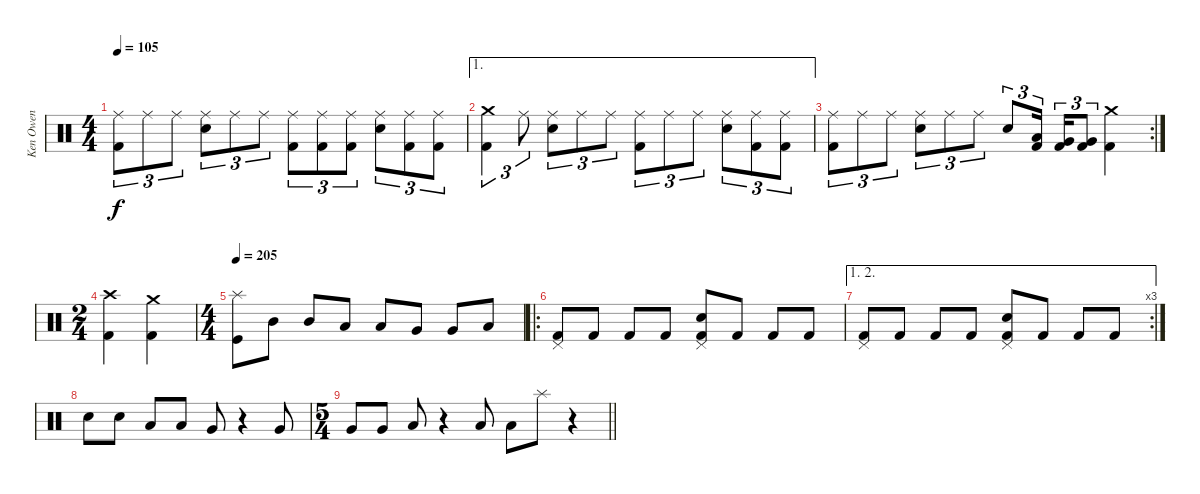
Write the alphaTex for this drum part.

\track ("Ken Owen" "Ken Owen") {instrument percussion}
\staff {score}
\articulation defaults
\ts (4 4)
\tempo 105
\clef neutral
\ks c
("Ride (middle)" "Kick (hit) 2").8{tu (3 2) dy f} "Ride (middle)".8{tu (3 2)} "Ride (middle)".8{tu (3 2)} ("Ride (middle)" "Electric Snare (hit)").8{tu (3 2)} "Ride (middle)".8{tu (3 2)} "Ride (middle)".8{tu (3 2)} ("Ride (middle)" "Kick (hit) 2").8{tu (3 2)} ("Ride (middle)" "Kick (hit) 2").8{tu (3 2)} ("Ride (middle)" "Kick (hit) 2").8{tu (3 2)} ("Ride (middle)" "Electric Snare (hit)").8{tu (3 2)} ("Ride (middle)" "Kick (hit) 2").8{tu (3 2)} ("Ride (middle)" "Kick (hit) 2").8{tu (3 2)} |
\ae 1
("Crash medium (hit)" "Kick (hit) 2").4{tu (3 2)} "Ride (middle)".8{tu (3 2)} ("Ride (middle)" "Electric Snare (hit)").8{tu (3 2)} "Ride (middle)".8{tu (3 2)} "Ride (middle)".8{tu (3 2)} ("Ride (middle)" "Kick (hit) 2").8{tu (3 2)} "Ride (middle)".8{tu (3 2)} "Ride (middle)".8{tu (3 2)} ("Ride (middle)" "Electric Snare (hit)").8{tu (3 2)} ("Ride (middle)" "Kick (hit) 2").8{tu (3 2)} ("Ride (middle)" "Kick (hit) 2").8{tu (3 2)} |
\rc 2
("Ride (middle)" "Kick (hit) 2").8{tu (3 2)} "Ride (middle)".8{tu (3 2)} "Ride (middle)".8{tu (3 2)} ("Ride (middle)" "Electric Snare (hit)").8{tu (3 2)} "Ride (middle)".8{tu (3 2)} "Ride (middle)".8{tu (3 2)} "Electric Snare (hit)".8{tu (3 2)} ("Low Tom (hit)" "Kick (hit) 2").16{tu (3 2) beam splitsecondary} ("Very Low Tom (hit)" "Kick (hit) 2").16{tu (3 2)} ("Very Low Tom (hit)" "Kick (hit) 2").8{tu (3 2)} ("Crash medium (hit)" "Kick (hit) 2").4 |
\ts (2 4)
("Crash high (hit)" "Kick (hit) 2").4 ("Crash medium (hit)" "Kick (hit) 2").4 |
\ts (4 4)
\tempo 205
("Splash (hit)" "Kick (hit)").8 "Mid Tom (hit)".8 "Mid Tom (hit)".8 "Low Tom (hit)".8 "Low Tom (hit)".8 "Very Low Tom (hit)".8 "Very Low Tom (hit)".8 "Low Floor Tom (hit)".8 |
\ro
("Pedal Hi-Hat (hit)" "Kick (hit) 2").8 "Kick (hit) 2".8 "Kick (hit) 2".8 "Kick (hit) 2".8 ("Pedal Hi-Hat (hit)" "Electric Snare (hit)" "Kick (hit) 2").8 "Kick (hit) 2".8 "Kick (hit) 2".8 "Kick (hit) 2".8 |
\ae (1 2)
\rc 3
("Pedal Hi-Hat (hit)" "Kick (hit) 2").8 "Kick (hit) 2".8 "Kick (hit) 2".8 "Kick (hit) 2".8 ("Pedal Hi-Hat (hit)" "Electric Snare (hit)" "Kick (hit) 2").8 "Kick (hit) 2".8 "Kick (hit) 2".8 "Kick (hit) 2".8 |
"Electric Snare (hit)".8 "Electric Snare (hit)".8 "Low Tom (hit)".8 "Low Tom (hit)".8 "Very Low Tom (hit)".8 r.4 "Very Low Tom (hit)".8 |
\ts (5 4)
\barLineRight lightlight "Very Low Tom (hit)".8 "Very Low Tom (hit)".8 "Low Floor Tom (hit)".8
r.4 "Low Floor Tom (hit)".8 "Low Floor Tom (hit)".8 "Splash (hit)".8 r.4
